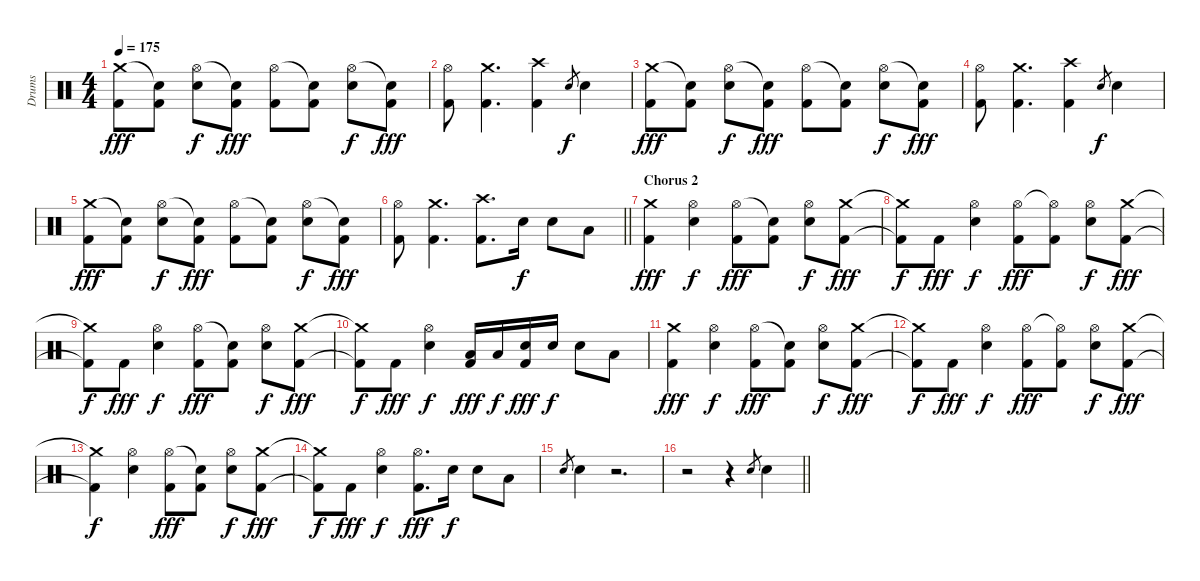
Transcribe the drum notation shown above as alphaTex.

\track ("Drums" "Drums") {instrument percussion}
\staff {score}
\articulation defaults
\ts (4 4)
\tempo 175
\clef neutral
\ks c
("Crash medium (hit)" "Kick (hit) 2").8{dy fff} ("Snare (hit)"{t} "Kick (hit) 2").8 ("Hi-Hat (open)" "Snare (hit) 2").8{dy f} ("Snare (hit)"{t} "Kick (hit) 2").8{dy fff} ("Hi-Hat (open)" "Kick (hit) 2").8 ("Snare (hit)"{t} "Kick (hit) 2").8 ("Hi-Hat (open)" "Snare (hit) 2").8{dy f} ("Snare (hit)"{t} "Kick (hit) 2").8{dy fff} |
("Hi-Hat (open)" "Kick (hit) 2").8 ("Crash medium (hit)" "Kick (hit) 2").4{d} ("Crash high (hit)" "Kick (hit) 2").4 "Snare (hit) 2".8{gr dy f} "Snare (hit) 2".4 |
("Crash medium (hit)" "Kick (hit) 2").8{dy fff} ("Snare (hit)"{t} "Kick (hit) 2").8 ("Hi-Hat (open)" "Snare (hit) 2").8{dy f} ("Snare (hit)"{t} "Kick (hit) 2").8{dy fff} ("Hi-Hat (open)" "Kick (hit) 2").8 ("Snare (hit)"{t} "Kick (hit) 2").8 ("Hi-Hat (open)" "Snare (hit) 2").8{dy f} ("Snare (hit)"{t} "Kick (hit) 2").8{dy fff} |
("Hi-Hat (open)" "Kick (hit) 2").8 ("Crash medium (hit)" "Kick (hit) 2").4{d} ("Crash high (hit)" "Kick (hit) 2").4 "Snare (hit) 2".8{gr dy f} "Snare (hit) 2".4 |
("Crash medium (hit)" "Kick (hit) 2").8{dy fff} ("Snare (hit)"{t} "Kick (hit) 2").8 ("Hi-Hat (open)" "Snare (hit) 2").8{dy f} ("Snare (hit)"{t} "Kick (hit) 2").8{dy fff} ("Hi-Hat (open)" "Kick (hit) 2").8 ("Snare (hit)"{t} "Kick (hit) 2").8 ("Hi-Hat (open)" "Snare (hit) 2").8{dy f} ("Snare (hit)"{t} "Kick (hit) 2").8{dy fff} |
\barLineRight lightlight
("Hi-Hat (open)" "Kick (hit) 2").8 ("Crash medium (hit)" "Kick (hit) 2").4{d} ("Crash high (hit)" "Kick (hit) 2").8{d} "Snare (hit) 2".16{dy f} "Snare (hit) 2".8 "Low Tom (hit)".8 |
\section ("" "Chorus 2")
("Crash medium (hit)" "Kick (hit) 2").4{dy fff} ("Hi-Hat (open)" "Snare (hit) 2").4{dy f} ("Hi-Hat (open)" "Kick (hit) 2").8{dy fff} ("Snare (hit)"{t} "Kick (hit) 2").8 ("Hi-Hat (open)" "Snare (hit) 2").8{dy f} ("Crash medium (hit)" "Kick (hit) 2").8{dy fff} |
("Crash medium (hit)"{t} "Kick (hit) 2"{t}).8{dy f} "Kick (hit) 2".8{dy fff} ("Hi-Hat (open)" "Snare (hit) 2").4{dy f} ("Hi-Hat (open)" "Kick (hit) 2").8{dy fff} ("Hi-Hat (open)"{t} "Kick (hit) 2").8 ("Hi-Hat (open)" "Snare (hit) 2").8{dy f} ("Crash medium (hit)" "Kick (hit) 2").8{dy fff} |
("Crash medium (hit)"{t} "Kick (hit) 2"{t}).8{dy f} "Kick (hit) 2".8{dy fff} ("Hi-Hat (open)" "Snare (hit) 2").4{dy f} ("Hi-Hat (open)" "Kick (hit) 2").8{dy fff} ("Snare (hit)"{t} "Kick (hit) 2").8 ("Hi-Hat (open)" "Snare (hit) 2").8{dy f} ("Crash medium (hit)" "Kick (hit) 2").8{dy fff} |
("Crash medium (hit)"{t} "Kick (hit) 2"{t}).8{dy f} "Kick (hit) 2".8{dy fff} ("Hi-Hat (open)" "Snare (hit) 2").4{dy f} ("Low Tom (hit)" "Kick (hit) 2").16{dy fff} "Low Tom (hit)".16{dy f} ("Snare (hit) 2" "Kick (hit) 2").16{dy fff} "Snare (hit) 2".16{dy f} "Snare (hit) 2".8 "Low Tom (hit)".8 |
("Crash medium (hit)" "Kick (hit) 2").4{dy fff} ("Hi-Hat (open)" "Snare (hit) 2").4{dy f} ("Hi-Hat (open)" "Kick (hit) 2").8{dy fff} ("Snare (hit)"{t} "Kick (hit) 2").8 ("Hi-Hat (open)" "Snare (hit) 2").8{dy f} ("Crash medium (hit)" "Kick (hit) 2").8{dy fff} |
("Crash medium (hit)"{t} "Kick (hit) 2"{t}).8{dy f} "Kick (hit) 2".8{dy fff} ("Hi-Hat (open)" "Snare (hit) 2").4{dy f} ("Hi-Hat (open)" "Kick (hit) 2").8{dy fff} ("Hi-Hat (open)"{t} "Kick (hit) 2").8 ("Hi-Hat (open)" "Snare (hit) 2").8{dy f} ("Crash medium (hit)" "Kick (hit) 2").8{dy fff} |
("Crash medium (hit)"{t} "Kick (hit) 2"{t}).4{dy f} ("Hi-Hat (open)" "Snare (hit) 2").4 ("Hi-Hat (open)" "Kick (hit) 2").8{dy fff} ("Snare (hit)"{t} "Kick (hit) 2").8 ("Hi-Hat (open)" "Snare (hit) 2").8{dy f} ("Crash medium (hit)" "Kick (hit) 2").8{dy fff} |
("Crash medium (hit)"{t} "Kick (hit) 2"{t}).8{dy f} "Kick (hit) 2".8{dy fff} ("Hi-Hat (open)" "Snare (hit) 2").4{dy f} ("Hi-Hat (open)" "Kick (hit) 2").8{d dy fff} "Snare (hit) 2".16{dy f} "Snare (hit) 2".8 "Low Tom (hit)".8 |
"Snare (hit) 2".8{gr} "Snare (hit) 2".4 r.2{d} |
\barLineRight lightlight
r.2 r.4 "Snare (hit) 2".8{gr} "Snare (hit) 2".4
